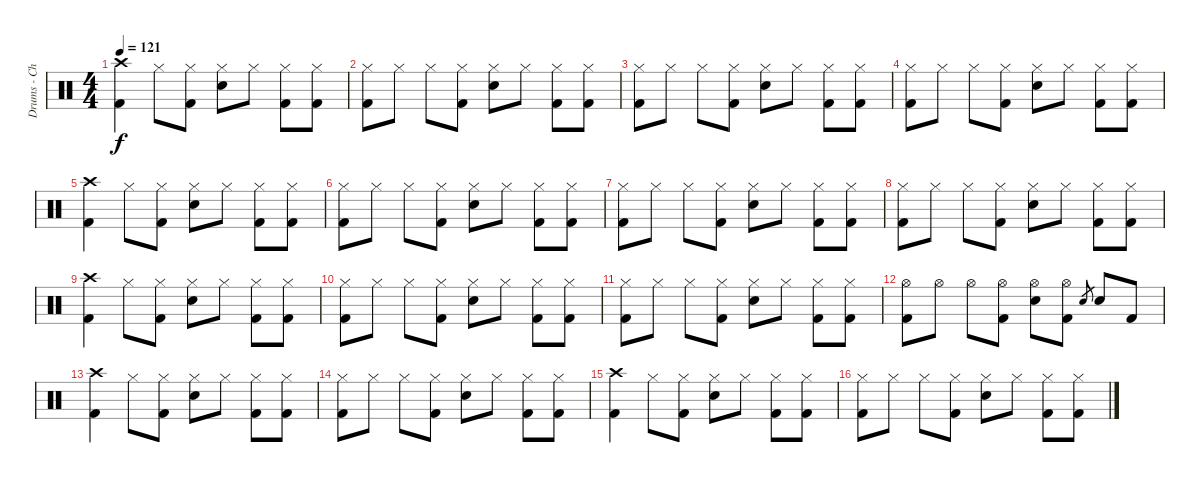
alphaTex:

\track ("Drums - Chad" "Drums - Ch") {instrument percussion}
\staff {score}
\articulation defaults
\ts (4 4)
\tempo 121
\clef neutral
\ks c
("Crash high (hit)" "Kick (hit) 2").4{dy f} "Hi-Hat (closed)".8 ("Hi-Hat (closed)" "Kick (hit) 2").8 ("Hi-Hat (closed)" "Electric Snare (hit)").8 "Hi-Hat (closed)".8 ("Hi-Hat (closed)" "Kick (hit) 2").8 ("Hi-Hat (closed)" "Kick (hit) 2").8 |
("Hi-Hat (closed)" "Kick (hit) 2").8 "Hi-Hat (closed)".8 "Hi-Hat (closed)".8 ("Hi-Hat (closed)" "Kick (hit) 2").8 ("Hi-Hat (closed)" "Electric Snare (hit)").8 "Hi-Hat (closed)".8 ("Hi-Hat (closed)" "Kick (hit) 2").8 ("Hi-Hat (closed)" "Kick (hit) 2").8 |
("Hi-Hat (closed)" "Kick (hit) 2").8 "Hi-Hat (closed)".8 "Hi-Hat (closed)".8 ("Hi-Hat (closed)" "Kick (hit) 2").8 ("Hi-Hat (closed)" "Electric Snare (hit)").8 "Hi-Hat (closed)".8 ("Hi-Hat (closed)" "Kick (hit) 2").8 ("Hi-Hat (closed)" "Kick (hit) 2").8 |
("Hi-Hat (closed)" "Kick (hit) 2").8 "Hi-Hat (closed)".8 "Hi-Hat (closed)".8 ("Hi-Hat (closed)" "Kick (hit) 2").8 ("Hi-Hat (closed)" "Electric Snare (hit)").8 "Hi-Hat (closed)".8 ("Hi-Hat (closed)" "Kick (hit) 2").8 ("Hi-Hat (closed)" "Kick (hit) 2").8 |
("Crash high (hit)" "Kick (hit) 2").4 "Hi-Hat (closed)".8 ("Hi-Hat (closed)" "Kick (hit) 2").8 ("Hi-Hat (closed)" "Electric Snare (hit)").8 "Hi-Hat (closed)".8 ("Hi-Hat (closed)" "Kick (hit) 2").8 ("Hi-Hat (closed)" "Kick (hit) 2").8 |
("Hi-Hat (closed)" "Kick (hit) 2").8 "Hi-Hat (closed)".8 "Hi-Hat (closed)".8 ("Hi-Hat (closed)" "Kick (hit) 2").8 ("Hi-Hat (closed)" "Electric Snare (hit)").8 "Hi-Hat (closed)".8 ("Hi-Hat (closed)" "Kick (hit) 2").8 ("Hi-Hat (closed)" "Kick (hit) 2").8 |
("Hi-Hat (closed)" "Kick (hit) 2").8 "Hi-Hat (closed)".8 "Hi-Hat (closed)".8 ("Hi-Hat (closed)" "Kick (hit) 2").8 ("Hi-Hat (closed)" "Electric Snare (hit)").8 "Hi-Hat (closed)".8 ("Hi-Hat (closed)" "Kick (hit) 2").8 ("Hi-Hat (closed)" "Kick (hit) 2").8 |
("Hi-Hat (closed)" "Kick (hit) 2").8 "Hi-Hat (closed)".8 "Hi-Hat (closed)".8 ("Hi-Hat (closed)" "Kick (hit) 2").8 ("Hi-Hat (closed)" "Electric Snare (hit)").8 "Hi-Hat (closed)".8 ("Hi-Hat (closed)" "Kick (hit) 2").8 ("Hi-Hat (closed)" "Kick (hit) 2").8 |
("Crash high (hit)" "Kick (hit) 2").4 "Hi-Hat (closed)".8 ("Hi-Hat (closed)" "Kick (hit) 2").8 ("Hi-Hat (closed)" "Electric Snare (hit)").8 "Hi-Hat (closed)".8 ("Hi-Hat (closed)" "Kick (hit) 2").8 ("Hi-Hat (closed)" "Kick (hit) 2").8 |
("Hi-Hat (closed)" "Kick (hit) 2").8 "Hi-Hat (closed)".8 "Hi-Hat (closed)".8 ("Hi-Hat (closed)" "Kick (hit) 2").8 ("Hi-Hat (closed)" "Electric Snare (hit)").8 "Hi-Hat (closed)".8 ("Hi-Hat (closed)" "Kick (hit) 2").8 ("Hi-Hat (closed)" "Kick (hit) 2").8 |
("Hi-Hat (closed)" "Kick (hit) 2").8 "Hi-Hat (closed)".8 "Hi-Hat (closed)".8 ("Hi-Hat (closed)" "Kick (hit) 2").8 ("Hi-Hat (closed)" "Electric Snare (hit)").8 "Hi-Hat (closed)".8 ("Hi-Hat (closed)" "Kick (hit) 2").8 ("Hi-Hat (closed)" "Kick (hit) 2").8 |
("Hi-Hat (open)" "Kick (hit) 2").8 "Hi-Hat (open)".8 "Hi-Hat (open)".8 ("Hi-Hat (open)" "Kick (hit) 2").8 ("Hi-Hat (open)" "Electric Snare (hit)").8 ("Hi-Hat (open)" "Kick (hit) 2").8 "Electric Snare (hit)".8{gr} "Electric Snare (hit)".8 "Kick (hit) 2".8 |
("Crash high (hit)" "Kick (hit) 2").4 "Hi-Hat (closed)".8 ("Hi-Hat (closed)" "Kick (hit) 2").8 ("Hi-Hat (closed)" "Electric Snare (hit)").8 "Hi-Hat (closed)".8 ("Hi-Hat (closed)" "Kick (hit) 2").8 ("Hi-Hat (closed)" "Kick (hit) 2").8 |
("Hi-Hat (closed)" "Kick (hit) 2").8 "Hi-Hat (closed)".8 "Hi-Hat (closed)".8 ("Hi-Hat (closed)" "Kick (hit) 2").8 ("Hi-Hat (closed)" "Electric Snare (hit)").8 "Hi-Hat (closed)".8 ("Hi-Hat (closed)" "Kick (hit) 2").8 ("Hi-Hat (closed)" "Kick (hit) 2").8 |
("Crash high (hit)" "Kick (hit) 2").4 "Hi-Hat (closed)".8 ("Hi-Hat (closed)" "Kick (hit) 2").8 ("Hi-Hat (closed)" "Electric Snare (hit)").8 "Hi-Hat (closed)".8 ("Hi-Hat (closed)" "Kick (hit) 2").8 ("Hi-Hat (closed)" "Kick (hit) 2").8 |
("Hi-Hat (closed)" "Kick (hit) 2").8 "Hi-Hat (closed)".8 "Hi-Hat (closed)".8 ("Hi-Hat (closed)" "Kick (hit) 2").8 ("Hi-Hat (closed)" "Electric Snare (hit)").8 "Hi-Hat (closed)".8 ("Hi-Hat (closed)" "Kick (hit) 2").8 ("Hi-Hat (closed)" "Kick (hit) 2").8
